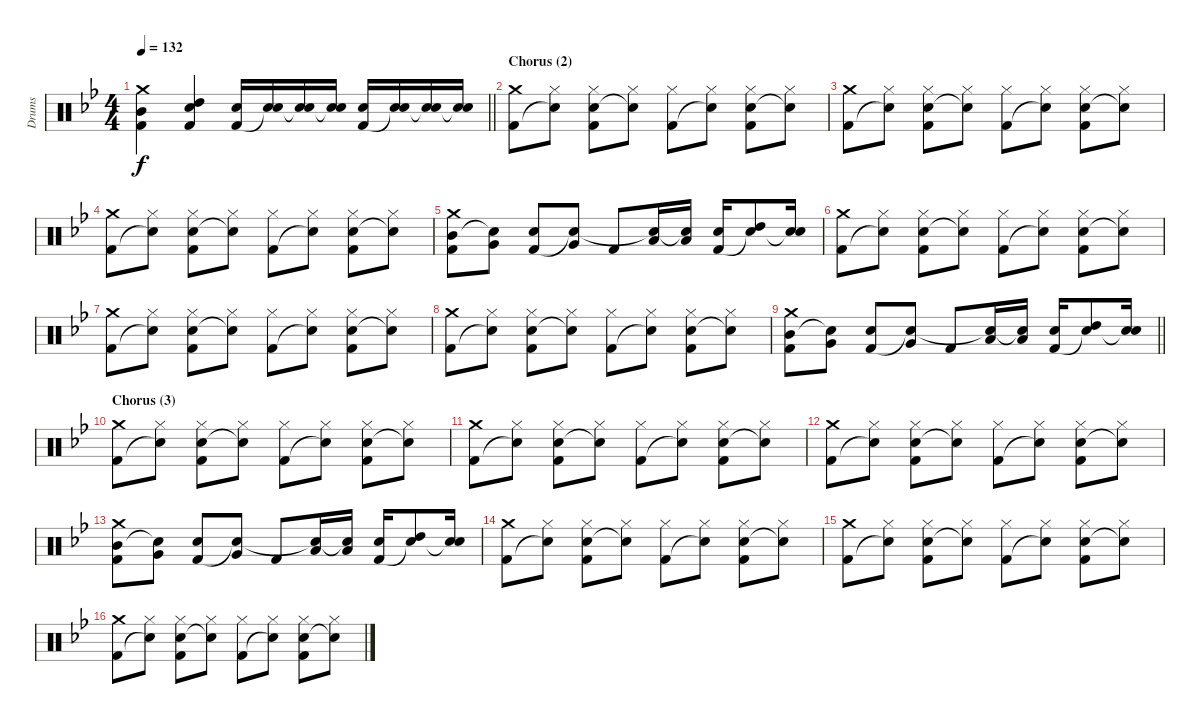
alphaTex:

\track ("Drums" "Drums") {instrument percussion}
\staff {score}
\articulation defaults
\ts (4 4)
\tempo 132
\clef neutral
\barLineRight lightlight
\ks bb
("Crash medium (hit)" "Mid Tom (hit)" "Kick (hit) 2").4{dy f} ("High Tom (hit)" "Electric Snare (hit)" "Kick (hit) 2").4 ("Electric Snare (hit)" "Kick (hit) 2").16 ("Electric Snare (hit)" "Snare (hit)"{t}).16 ("Electric Snare (hit)" "Snare (hit)"{t}).16 ("Electric Snare (hit)" "Snare (hit)"{t}).16 ("Electric Snare (hit)" "Kick (hit) 2").16 ("Electric Snare (hit)" "Snare (hit)"{t}).16 ("Electric Snare (hit)" "Snare (hit)"{t}).16 ("Electric Snare (hit)" "Snare (hit)"{t}).16 |
\section ("" "Chorus (2)")
("Crash medium (hit)" "Kick (hit) 2").8 ("Hi-Hat (closed)" "Snare (hit)"{t}).8 ("Hi-Hat (closed)" "Electric Snare (hit)" "Kick (hit) 2").8 ("Hi-Hat (closed)" "Snare (hit)"{t}).8 ("Hi-Hat (closed)" "Kick (hit) 2").8 ("Hi-Hat (closed)" "Snare (hit)"{t}).8 ("Hi-Hat (closed)" "Electric Snare (hit)" "Kick (hit) 2").8 ("Hi-Hat (closed)" "Snare (hit)"{t}).8 |
("Crash medium (hit)" "Kick (hit) 2").8 ("Hi-Hat (closed)" "Snare (hit)"{t}).8 ("Hi-Hat (closed)" "Electric Snare (hit)" "Kick (hit) 2").8 ("Hi-Hat (closed)" "Snare (hit)"{t}).8 ("Hi-Hat (closed)" "Kick (hit) 2").8 ("Hi-Hat (closed)" "Snare (hit)"{t}).8 ("Hi-Hat (closed)" "Electric Snare (hit)" "Kick (hit) 2").8 ("Hi-Hat (closed)" "Snare (hit)"{t}).8 |
("Crash medium (hit)" "Kick (hit) 2").8 ("Hi-Hat (closed)" "Snare (hit)"{t}).8 ("Hi-Hat (closed)" "Electric Snare (hit)" "Kick (hit) 2").8 ("Hi-Hat (closed)" "Snare (hit)"{t}).8 ("Hi-Hat (closed)" "Kick (hit) 2").8 ("Hi-Hat (closed)" "Snare (hit)"{t}).8 ("Hi-Hat (closed)" "Electric Snare (hit)" "Kick (hit) 2").8 ("Hi-Hat (closed)" "Snare (hit)"{t}).8 |
("Crash medium (hit)" "Mid Tom (hit)" "Kick (hit) 2").8 ("Very Low Tom (hit)" "Snare (hit)"{t}).8 ("Electric Snare (hit)" "Kick (hit) 2").8 ("Very Low Tom (hit)" "Snare (hit)"{t}).8 "Kick (hit) 2".8 ("Low Floor Tom (hit)" "Snare (hit)"{t}).16 ("Low Floor Tom (hit)" "Snare (hit)"{t}).16 ("Electric Snare (hit)" "Kick (hit) 2").16 ("High Tom (hit)" "Snare (hit)"{t}).8 ("Electric Snare (hit)" "Snare (hit)"{t}).16 |
("Crash medium (hit)" "Kick (hit) 2").8 ("Hi-Hat (closed)" "Snare (hit)"{t}).8 ("Hi-Hat (closed)" "Electric Snare (hit)" "Kick (hit) 2").8 ("Hi-Hat (closed)" "Snare (hit)"{t}).8 ("Hi-Hat (closed)" "Kick (hit) 2").8 ("Hi-Hat (closed)" "Snare (hit)"{t}).8 ("Hi-Hat (closed)" "Electric Snare (hit)" "Kick (hit) 2").8 ("Hi-Hat (closed)" "Snare (hit)"{t}).8 |
("Crash medium (hit)" "Kick (hit) 2").8 ("Hi-Hat (closed)" "Snare (hit)"{t}).8 ("Hi-Hat (closed)" "Electric Snare (hit)" "Kick (hit) 2").8 ("Hi-Hat (closed)" "Snare (hit)"{t}).8 ("Hi-Hat (closed)" "Kick (hit) 2").8 ("Hi-Hat (closed)" "Snare (hit)"{t}).8 ("Hi-Hat (closed)" "Electric Snare (hit)" "Kick (hit) 2").8 ("Hi-Hat (closed)" "Snare (hit)"{t}).8 |
("Crash medium (hit)" "Kick (hit) 2").8 ("Hi-Hat (closed)" "Snare (hit)"{t}).8 ("Hi-Hat (closed)" "Electric Snare (hit)" "Kick (hit) 2").8 ("Hi-Hat (closed)" "Snare (hit)"{t}).8 ("Hi-Hat (closed)" "Kick (hit) 2").8 ("Hi-Hat (closed)" "Snare (hit)"{t}).8 ("Hi-Hat (closed)" "Electric Snare (hit)" "Kick (hit) 2").8 ("Hi-Hat (closed)" "Snare (hit)"{t}).8 |
\barLineRight lightlight
("Crash medium (hit)" "Mid Tom (hit)" "Kick (hit) 2").8 ("Very Low Tom (hit)" "Snare (hit)"{t}).8 ("Electric Snare (hit)" "Kick (hit) 2").8 ("Very Low Tom (hit)" "Snare (hit)"{t}).8 "Kick (hit) 2".8 ("Low Floor Tom (hit)" "Snare (hit)"{t}).16 ("Low Floor Tom (hit)" "Snare (hit)"{t}).16 ("Electric Snare (hit)" "Kick (hit) 2").16 ("High Tom (hit)" "Snare (hit)"{t}).8 ("Electric Snare (hit)" "Snare (hit)"{t}).16 |
\section ("" "Chorus (3)")
("Crash medium (hit)" "Kick (hit) 2").8 ("Hi-Hat (closed)" "Snare (hit)"{t}).8 ("Hi-Hat (closed)" "Electric Snare (hit)" "Kick (hit) 2").8 ("Hi-Hat (closed)" "Snare (hit)"{t}).8 ("Hi-Hat (closed)" "Kick (hit) 2").8 ("Hi-Hat (closed)" "Snare (hit)"{t}).8 ("Hi-Hat (closed)" "Electric Snare (hit)" "Kick (hit) 2").8 ("Hi-Hat (closed)" "Snare (hit)"{t}).8 |
("Crash medium (hit)" "Kick (hit) 2").8 ("Hi-Hat (closed)" "Snare (hit)"{t}).8 ("Hi-Hat (closed)" "Electric Snare (hit)" "Kick (hit) 2").8 ("Hi-Hat (closed)" "Snare (hit)"{t}).8 ("Hi-Hat (closed)" "Kick (hit) 2").8 ("Hi-Hat (closed)" "Snare (hit)"{t}).8 ("Hi-Hat (closed)" "Electric Snare (hit)" "Kick (hit) 2").8 ("Hi-Hat (closed)" "Snare (hit)"{t}).8 |
("Crash medium (hit)" "Kick (hit) 2").8 ("Hi-Hat (closed)" "Snare (hit)"{t}).8 ("Hi-Hat (closed)" "Electric Snare (hit)" "Kick (hit) 2").8 ("Hi-Hat (closed)" "Snare (hit)"{t}).8 ("Hi-Hat (closed)" "Kick (hit) 2").8 ("Hi-Hat (closed)" "Snare (hit)"{t}).8 ("Hi-Hat (closed)" "Electric Snare (hit)" "Kick (hit) 2").8 ("Hi-Hat (closed)" "Snare (hit)"{t}).8 |
("Crash medium (hit)" "Mid Tom (hit)" "Kick (hit) 2").8 ("Very Low Tom (hit)" "Snare (hit)"{t}).8 ("Electric Snare (hit)" "Kick (hit) 2").8 ("Very Low Tom (hit)" "Snare (hit)"{t}).8 "Kick (hit) 2".8 ("Low Floor Tom (hit)" "Snare (hit)"{t}).16 ("Low Floor Tom (hit)" "Snare (hit)"{t}).16 ("Electric Snare (hit)" "Kick (hit) 2").16 ("High Tom (hit)" "Snare (hit)"{t}).8 ("Electric Snare (hit)" "Snare (hit)"{t}).16 |
("Crash medium (hit)" "Kick (hit) 2").8 ("Hi-Hat (closed)" "Snare (hit)"{t}).8 ("Hi-Hat (closed)" "Electric Snare (hit)" "Kick (hit) 2").8 ("Hi-Hat (closed)" "Snare (hit)"{t}).8 ("Hi-Hat (closed)" "Kick (hit) 2").8 ("Hi-Hat (closed)" "Snare (hit)"{t}).8 ("Hi-Hat (closed)" "Electric Snare (hit)" "Kick (hit) 2").8 ("Hi-Hat (closed)" "Snare (hit)"{t}).8 |
("Crash medium (hit)" "Kick (hit) 2").8 ("Hi-Hat (closed)" "Snare (hit)"{t}).8 ("Hi-Hat (closed)" "Electric Snare (hit)" "Kick (hit) 2").8 ("Hi-Hat (closed)" "Snare (hit)"{t}).8 ("Hi-Hat (closed)" "Kick (hit) 2").8 ("Hi-Hat (closed)" "Snare (hit)"{t}).8 ("Hi-Hat (closed)" "Electric Snare (hit)" "Kick (hit) 2").8 ("Hi-Hat (closed)" "Snare (hit)"{t}).8 |
("Crash medium (hit)" "Kick (hit) 2").8 ("Hi-Hat (closed)" "Snare (hit)"{t}).8 ("Hi-Hat (closed)" "Electric Snare (hit)" "Kick (hit) 2").8 ("Hi-Hat (closed)" "Snare (hit)"{t}).8 ("Hi-Hat (closed)" "Kick (hit) 2").8 ("Hi-Hat (closed)" "Snare (hit)"{t}).8 ("Hi-Hat (closed)" "Electric Snare (hit)" "Kick (hit) 2").8 ("Hi-Hat (closed)" "Snare (hit)"{t}).8
